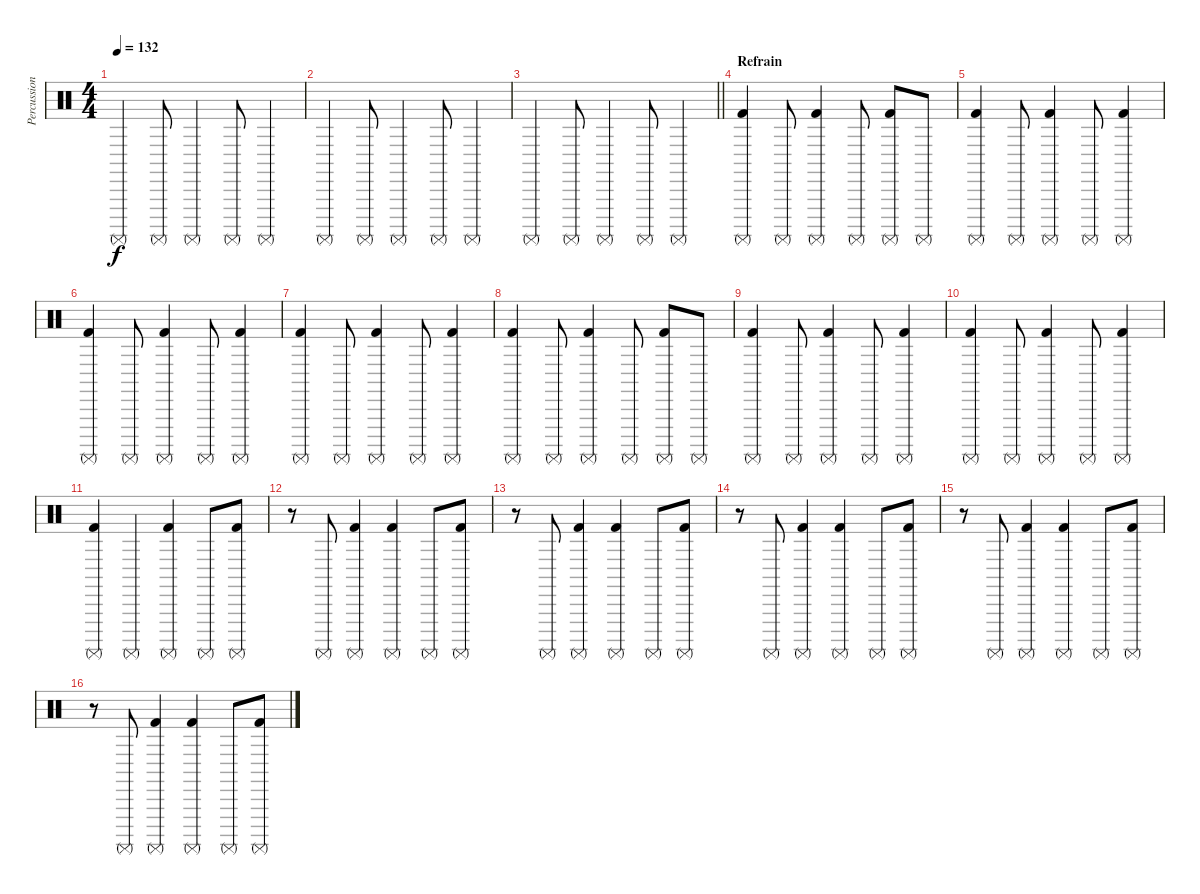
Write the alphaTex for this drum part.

\track ("Percussion" "Percussion") {instrument percussion}
\staff {score}
\articulation defaults
\ts (4 4)
\tempo 132
\clef neutral
\ks c "Surdo (mute)".4{dy f} "Surdo (mute)".8 "Surdo (mute)".4 "Surdo (mute)".8 "Surdo (mute)".4
|
"Surdo (mute)".4 "Surdo (mute)".8 "Surdo (mute)".4 "Surdo (mute)".8 "Surdo (mute)".4 |
\barLineRight lightlight "Surdo (mute)".4 "Surdo (mute)".8 "Surdo (mute)".4 "Surdo (mute)".8 "Surdo (mute)".4
|
\section ("" "Refrain")
("Surdo (mute)" "Kick (hit) 2").4 "Surdo (mute)".8 ("Surdo (mute)" "Kick (hit) 2").4 "Surdo (mute)".8 ("Surdo (mute)" "Kick (hit) 2").8 "Surdo (mute)".8 |
("Surdo (mute)" "Kick (hit) 2").4 "Surdo (mute)".8 ("Surdo (mute)" "Kick (hit) 2").4 "Surdo (mute)".8 ("Surdo (mute)" "Kick (hit) 2").4 |
("Surdo (mute)" "Kick (hit) 2").4 "Surdo (mute)".8 ("Surdo (mute)" "Kick (hit) 2").4 "Surdo (mute)".8 ("Surdo (mute)" "Kick (hit) 2").4 |
("Surdo (mute)" "Kick (hit) 2").4 "Surdo (mute)".8 ("Surdo (mute)" "Kick (hit) 2").4 "Surdo (mute)".8 ("Surdo (mute)" "Kick (hit) 2").4 |
("Surdo (mute)" "Kick (hit) 2").4 "Surdo (mute)".8 ("Surdo (mute)" "Kick (hit) 2").4 "Surdo (mute)".8 ("Surdo (mute)" "Kick (hit) 2").8 "Surdo (mute)".8 |
("Surdo (mute)" "Kick (hit) 2").4 "Surdo (mute)".8 ("Surdo (mute)" "Kick (hit) 2").4 "Surdo (mute)".8 ("Surdo (mute)" "Kick (hit) 2").4 |
("Surdo (mute)" "Kick (hit) 2").4 "Surdo (mute)".8 ("Surdo (mute)" "Kick (hit) 2").4 "Surdo (mute)".8 ("Surdo (mute)" "Kick (hit) 2").4 |
("Surdo (mute)" "Kick (hit) 2").4 "Surdo (mute)".4 ("Surdo (mute)" "Kick (hit) 2").4 "Surdo (mute)".8 ("Surdo (mute)" "Kick (hit) 2").8 |
r.8 "Surdo (mute)".8 ("Surdo (mute)" "Kick (hit) 2").4 ("Surdo (mute)" "Kick (hit) 2").4 "Surdo (mute)".8 ("Surdo (mute)" "Kick (hit) 2").8 |
r.8 "Surdo (mute)".8 ("Surdo (mute)" "Kick (hit) 2").4 ("Surdo (mute)" "Kick (hit) 2").4 "Surdo (mute)".8 ("Surdo (mute)" "Kick (hit) 2").8 |
r.8 "Surdo (mute)".8 ("Surdo (mute)" "Kick (hit) 2").4 ("Surdo (mute)" "Kick (hit) 2").4 "Surdo (mute)".8 ("Surdo (mute)" "Kick (hit) 2").8 |
r.8 "Surdo (mute)".8 ("Surdo (mute)" "Kick (hit) 2").4 ("Surdo (mute)" "Kick (hit) 2").4 "Surdo (mute)".8 ("Surdo (mute)" "Kick (hit) 2").8 |
r.8 "Surdo (mute)".8 ("Surdo (mute)" "Kick (hit) 2").4 ("Surdo (mute)" "Kick (hit) 2").4 "Surdo (mute)".8 ("Surdo (mute)" "Kick (hit) 2").8
